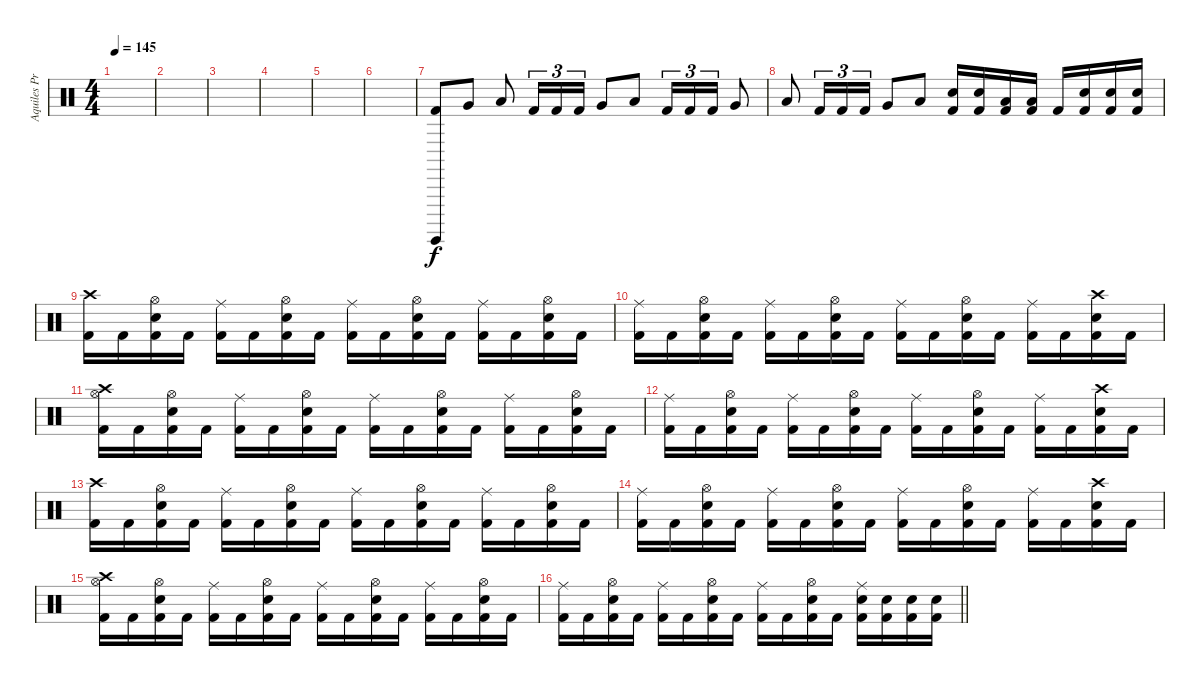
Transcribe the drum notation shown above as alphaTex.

\track ("Aquiles Priester" "Aquiles Pr") {instrument percussion}
\staff {score}
\articulation defaults
\ts (4 4)
\tempo 145
\clef neutral
\ks c
|
|
|
|
|
|
("Surdo (hit)" "Kick (hit) 2").8 "Very Low Tom (hit)".8 "Low Tom (hit)".8 "Kick (hit) 2".16{tu (3 2)} "Kick (hit) 2".16{tu (3 2)} "Kick (hit) 2".16{tu (3 2)} "Very Low Tom (hit)".8 "Low Tom (hit)".8 "Kick (hit) 2".16{tu (3 2)} "Kick (hit) 2".16{tu (3 2)} "Kick (hit) 2".16{tu (3 2)} "Very Low Tom (hit)".8 |
"Low Tom (hit)".8 "Kick (hit) 2".16{tu (3 2)} "Kick (hit) 2".16{tu (3 2)} "Kick (hit) 2".16{tu (3 2)} "Very Low Tom (hit)".8 "Low Tom (hit)".8 ("Electric Snare (hit)" "Kick (hit) 2").16 ("Electric Snare (hit)" "Kick (hit) 2").16 ("Low Tom (hit)" "Kick (hit) 2").16 ("Low Tom (hit)" "Kick (hit) 2").16 "Kick (hit) 2".16 ("Electric Snare (hit)" "Kick (hit) 2").16 ("Electric Snare (hit)" "Kick (hit) 2").16 ("Electric Snare (hit)" "Kick (hit) 2").16 |
("Crash high (hit)" "Kick (hit) 2").16 "Kick (hit) 2".16 ("Hi-Hat (open)" "Electric Snare (hit)" "Kick (hit) 2").16 "Kick (hit) 2".16 ("Ride (middle)" "Kick (hit) 2").16 "Kick (hit) 2".16 ("Hi-Hat (open)" "Electric Snare (hit)" "Kick (hit) 2").16 "Kick (hit) 2".16 ("Ride (middle)" "Kick (hit) 2").16 "Kick (hit) 2".16 ("Hi-Hat (open)" "Electric Snare (hit)" "Kick (hit) 2").16 "Kick (hit) 2".16 ("Ride (middle)" "Kick (hit) 2").16 "Kick (hit) 2".16 ("Hi-Hat (open)" "Electric Snare (hit)" "Kick (hit) 2").16 "Kick (hit) 2".16 |
("Ride (middle)" "Kick (hit) 2").16 "Kick (hit) 2".16 ("Hi-Hat (open)" "Electric Snare (hit)" "Kick (hit) 2").16 "Kick (hit) 2".16 ("Ride (middle)" "Kick (hit) 2").16 "Kick (hit) 2".16 ("Hi-Hat (open)" "Electric Snare (hit)" "Kick (hit) 2").16 "Kick (hit) 2".16 ("Ride (middle)" "Kick (hit) 2").16 "Kick (hit) 2".16 ("Hi-Hat (open)" "Electric Snare (hit)" "Kick (hit) 2").16 "Kick (hit) 2".16 ("Ride (middle)" "Kick (hit) 2").16 "Kick (hit) 2".16 ("Crash high (hit)" "Electric Snare (hit)" "Kick (hit) 2").16 "Kick (hit) 2".16 |
("Crash high (hit)" "Hi-Hat (open)" "Kick (hit) 2").16 "Kick (hit) 2".16 ("Hi-Hat (open)" "Electric Snare (hit)" "Kick (hit) 2").16 "Kick (hit) 2".16 ("Ride (middle)" "Kick (hit) 2").16 "Kick (hit) 2".16 ("Hi-Hat (open)" "Electric Snare (hit)" "Kick (hit) 2").16 "Kick (hit) 2".16 ("Ride (middle)" "Kick (hit) 2").16 "Kick (hit) 2".16 ("Hi-Hat (open)" "Electric Snare (hit)" "Kick (hit) 2").16 "Kick (hit) 2".16 ("Ride (middle)" "Kick (hit) 2").16 "Kick (hit) 2".16 ("Hi-Hat (open)" "Electric Snare (hit)" "Kick (hit) 2").16 "Kick (hit) 2".16 |
("Ride (middle)" "Kick (hit) 2").16 "Kick (hit) 2".16 ("Hi-Hat (open)" "Electric Snare (hit)" "Kick (hit) 2").16 "Kick (hit) 2".16 ("Ride (middle)" "Kick (hit) 2").16 "Kick (hit) 2".16 ("Hi-Hat (open)" "Electric Snare (hit)" "Kick (hit) 2").16 "Kick (hit) 2".16 ("Ride (middle)" "Kick (hit) 2").16 "Kick (hit) 2".16 ("Hi-Hat (open)" "Electric Snare (hit)" "Kick (hit) 2").16 "Kick (hit) 2".16 ("Ride (middle)" "Kick (hit) 2").16 "Kick (hit) 2".16 ("Crash high (hit)" "Electric Snare (hit)" "Kick (hit) 2").16 "Kick (hit) 2".16 |
("Crash high (hit)" "Kick (hit) 2").16 "Kick (hit) 2".16 ("Hi-Hat (open)" "Electric Snare (hit)" "Kick (hit) 2").16 "Kick (hit) 2".16 ("Ride (middle)" "Kick (hit) 2").16 "Kick (hit) 2".16 ("Hi-Hat (open)" "Electric Snare (hit)" "Kick (hit) 2").16 "Kick (hit) 2".16 ("Ride (middle)" "Kick (hit) 2").16 "Kick (hit) 2".16 ("Hi-Hat (open)" "Electric Snare (hit)" "Kick (hit) 2").16 "Kick (hit) 2".16 ("Ride (middle)" "Kick (hit) 2").16 "Kick (hit) 2".16 ("Hi-Hat (open)" "Electric Snare (hit)" "Kick (hit) 2").16 "Kick (hit) 2".16 |
("Ride (middle)" "Kick (hit) 2").16 "Kick (hit) 2".16 ("Hi-Hat (open)" "Electric Snare (hit)" "Kick (hit) 2").16 "Kick (hit) 2".16 ("Ride (middle)" "Kick (hit) 2").16 "Kick (hit) 2".16 ("Hi-Hat (open)" "Electric Snare (hit)" "Kick (hit) 2").16 "Kick (hit) 2".16 ("Ride (middle)" "Kick (hit) 2").16 "Kick (hit) 2".16 ("Hi-Hat (open)" "Electric Snare (hit)" "Kick (hit) 2").16 "Kick (hit) 2".16 ("Ride (middle)" "Kick (hit) 2").16 "Kick (hit) 2".16 ("Crash high (hit)" "Electric Snare (hit)" "Kick (hit) 2").16 "Kick (hit) 2".16 |
("Crash high (hit)" "Hi-Hat (open)" "Kick (hit) 2").16 "Kick (hit) 2".16 ("Hi-Hat (open)" "Electric Snare (hit)" "Kick (hit) 2").16 "Kick (hit) 2".16 ("Ride (middle)" "Kick (hit) 2").16 "Kick (hit) 2".16 ("Hi-Hat (open)" "Electric Snare (hit)" "Kick (hit) 2").16 "Kick (hit) 2".16 ("Ride (middle)" "Kick (hit) 2").16 "Kick (hit) 2".16 ("Hi-Hat (open)" "Electric Snare (hit)" "Kick (hit) 2").16 "Kick (hit) 2".16 ("Ride (middle)" "Kick (hit) 2").16 "Kick (hit) 2".16 ("Hi-Hat (open)" "Electric Snare (hit)" "Kick (hit) 2").16 "Kick (hit) 2".16 |
\barLineRight lightlight
("Ride (middle)" "Kick (hit) 2").16 "Kick (hit) 2".16 ("Hi-Hat (open)" "Electric Snare (hit)" "Kick (hit) 2").16 "Kick (hit) 2".16 ("Ride (middle)" "Kick (hit) 2").16 "Kick (hit) 2".16 ("Hi-Hat (open)" "Electric Snare (hit)" "Kick (hit) 2").16 "Kick (hit) 2".16 ("Ride (middle)" "Kick (hit) 2").16 "Kick (hit) 2".16 ("Hi-Hat (open)" "Electric Snare (hit)" "Kick (hit) 2").16 "Kick (hit) 2".16 ("Ride (middle)" "Electric Snare (hit)" "Kick (hit) 2").16 ("Electric Snare (hit)" "Kick (hit) 2").16 ("Electric Snare (hit)" "Kick (hit) 2").16 ("Electric Snare (hit)" "Kick (hit) 2").16
